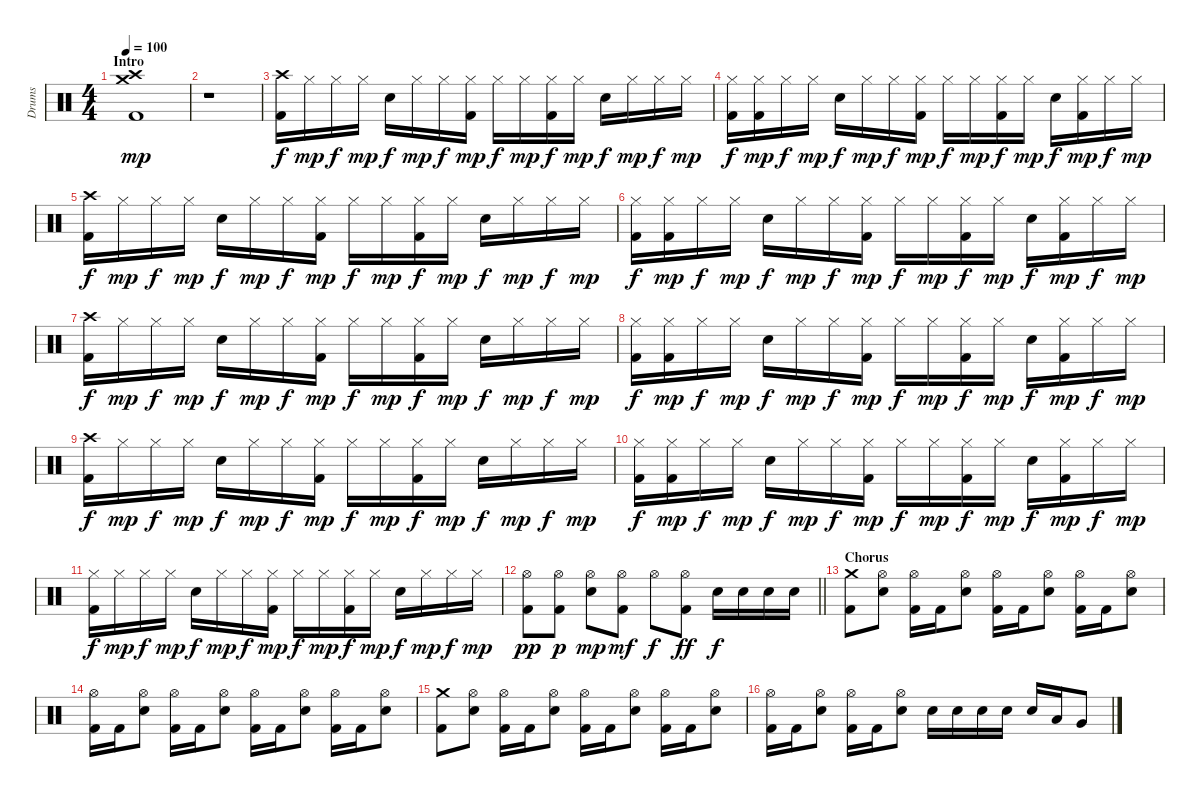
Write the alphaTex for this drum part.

\track ("Drums" "Drums") {instrument percussion}
\staff {score}
\articulation defaults
\ts (4 4)
\section ("" "Intro")
\tempo 100
\clef neutral
\ks c
("Crash high (hit)" "Crash medium (hit)" "Kick (hit) 2").1{dy mp} |
r.1 |
("Crash high (hit)" "Kick (hit) 2").16{dy f} "Hi-Hat (closed)".16{dy mp} "Hi-Hat (closed)".16{dy f} "Hi-Hat (closed)".16{dy mp} "Snare (hit) 2".16{dy f} "Hi-Hat (closed)".16{dy mp} "Hi-Hat (closed)".16{dy f} ("Hi-Hat (closed)" "Kick (hit) 2").16{dy mp} "Hi-Hat (closed)".16{dy f} "Hi-Hat (closed)".16{dy mp} ("Hi-Hat (closed)" "Kick (hit) 2").16{dy f} "Hi-Hat (closed)".16{dy mp} "Snare (hit) 2".16{dy f} "Hi-Hat (closed)".16{dy mp} "Hi-Hat (closed)".16{dy f} "Hi-Hat (closed)".16{dy mp} |
("Hi-Hat (closed)" "Kick (hit) 2").16{dy f} ("Hi-Hat (closed)" "Kick (hit) 2").16{dy mp} "Hi-Hat (closed)".16{dy f} "Hi-Hat (closed)".16{dy mp} "Snare (hit) 2".16{dy f} "Hi-Hat (closed)".16{dy mp} "Hi-Hat (closed)".16{dy f} ("Hi-Hat (closed)" "Kick (hit) 2").16{dy mp} "Hi-Hat (closed)".16{dy f} "Hi-Hat (closed)".16{dy mp} ("Hi-Hat (closed)" "Kick (hit) 2").16{dy f} "Hi-Hat (closed)".16{dy mp} "Snare (hit) 2".16{dy f} ("Hi-Hat (closed)" "Kick (hit) 2").16{dy mp} "Hi-Hat (closed)".16{dy f} "Hi-Hat (closed)".16{dy mp} |
("Crash high (hit)" "Kick (hit) 2").16{dy f} "Hi-Hat (closed)".16{dy mp} "Hi-Hat (closed)".16{dy f} "Hi-Hat (closed)".16{dy mp} "Snare (hit) 2".16{dy f} "Hi-Hat (closed)".16{dy mp} "Hi-Hat (closed)".16{dy f} ("Hi-Hat (closed)" "Kick (hit) 2").16{dy mp} "Hi-Hat (closed)".16{dy f} "Hi-Hat (closed)".16{dy mp} ("Hi-Hat (closed)" "Kick (hit) 2").16{dy f} "Hi-Hat (closed)".16{dy mp} "Snare (hit) 2".16{dy f} "Hi-Hat (closed)".16{dy mp} "Hi-Hat (closed)".16{dy f} "Hi-Hat (closed)".16{dy mp} |
("Hi-Hat (closed)" "Kick (hit) 2").16{dy f} ("Hi-Hat (closed)" "Kick (hit) 2").16{dy mp} "Hi-Hat (closed)".16{dy f} "Hi-Hat (closed)".16{dy mp} "Snare (hit) 2".16{dy f} "Hi-Hat (closed)".16{dy mp} "Hi-Hat (closed)".16{dy f} ("Hi-Hat (closed)" "Kick (hit) 2").16{dy mp} "Hi-Hat (closed)".16{dy f} "Hi-Hat (closed)".16{dy mp} ("Hi-Hat (closed)" "Kick (hit) 2").16{dy f} "Hi-Hat (closed)".16{dy mp} "Snare (hit) 2".16{dy f} ("Hi-Hat (closed)" "Kick (hit) 2").16{dy mp} "Hi-Hat (closed)".16{dy f} "Hi-Hat (closed)".16{dy mp} |
("Crash high (hit)" "Kick (hit) 2").16{dy f} "Hi-Hat (closed)".16{dy mp} "Hi-Hat (closed)".16{dy f} "Hi-Hat (closed)".16{dy mp} "Snare (hit) 2".16{dy f} "Hi-Hat (closed)".16{dy mp} "Hi-Hat (closed)".16{dy f} ("Hi-Hat (closed)" "Kick (hit) 2").16{dy mp} "Hi-Hat (closed)".16{dy f} "Hi-Hat (closed)".16{dy mp} ("Hi-Hat (closed)" "Kick (hit) 2").16{dy f} "Hi-Hat (closed)".16{dy mp} "Snare (hit) 2".16{dy f} "Hi-Hat (closed)".16{dy mp} "Hi-Hat (closed)".16{dy f} "Hi-Hat (closed)".16{dy mp} |
("Hi-Hat (closed)" "Kick (hit) 2").16{dy f} ("Hi-Hat (closed)" "Kick (hit) 2").16{dy mp} "Hi-Hat (closed)".16{dy f} "Hi-Hat (closed)".16{dy mp} "Snare (hit) 2".16{dy f} "Hi-Hat (closed)".16{dy mp} "Hi-Hat (closed)".16{dy f} ("Hi-Hat (closed)" "Kick (hit) 2").16{dy mp} "Hi-Hat (closed)".16{dy f} "Hi-Hat (closed)".16{dy mp} ("Hi-Hat (closed)" "Kick (hit) 2").16{dy f} "Hi-Hat (closed)".16{dy mp} "Snare (hit) 2".16{dy f} ("Hi-Hat (closed)" "Kick (hit) 2").16{dy mp} "Hi-Hat (closed)".16{dy f} "Hi-Hat (closed)".16{dy mp} |
("Crash high (hit)" "Kick (hit) 2").16{dy f} "Hi-Hat (closed)".16{dy mp} "Hi-Hat (closed)".16{dy f} "Hi-Hat (closed)".16{dy mp} "Snare (hit) 2".16{dy f} "Hi-Hat (closed)".16{dy mp} "Hi-Hat (closed)".16{dy f} ("Hi-Hat (closed)" "Kick (hit) 2").16{dy mp} "Hi-Hat (closed)".16{dy f} "Hi-Hat (closed)".16{dy mp} ("Hi-Hat (closed)" "Kick (hit) 2").16{dy f} "Hi-Hat (closed)".16{dy mp} "Snare (hit) 2".16{dy f} "Hi-Hat (closed)".16{dy mp} "Hi-Hat (closed)".16{dy f} "Hi-Hat (closed)".16{dy mp} |
("Hi-Hat (closed)" "Kick (hit) 2").16{dy f} ("Hi-Hat (closed)" "Kick (hit) 2").16{dy mp} "Hi-Hat (closed)".16{dy f} "Hi-Hat (closed)".16{dy mp} "Snare (hit) 2".16{dy f} "Hi-Hat (closed)".16{dy mp} "Hi-Hat (closed)".16{dy f} ("Hi-Hat (closed)" "Kick (hit) 2").16{dy mp} "Hi-Hat (closed)".16{dy f} "Hi-Hat (closed)".16{dy mp} ("Hi-Hat (closed)" "Kick (hit) 2").16{dy f} "Hi-Hat (closed)".16{dy mp} "Snare (hit) 2".16{dy f} ("Hi-Hat (closed)" "Kick (hit) 2").16{dy mp} "Hi-Hat (closed)".16{dy f} "Hi-Hat (closed)".16{dy mp} |
("Hi-Hat (closed)" "Kick (hit) 2").16{dy f} "Hi-Hat (closed)".16{dy mp} "Hi-Hat (closed)".16{dy f} "Hi-Hat (closed)".16{dy mp} "Snare (hit) 2".16{dy f} "Hi-Hat (closed)".16{dy mp} "Hi-Hat (closed)".16{dy f} ("Hi-Hat (closed)" "Kick (hit) 2").16{dy mp} "Hi-Hat (closed)".16{dy f} "Hi-Hat (closed)".16{dy mp} ("Hi-Hat (closed)" "Kick (hit) 2").16{dy f} "Hi-Hat (closed)".16{dy mp} "Snare (hit) 2".16{dy f} "Hi-Hat (closed)".16{dy mp} "Hi-Hat (closed)".16{dy f} "Hi-Hat (closed)".16{dy mp} |
\barLineRight lightlight
("Hi-Hat (open)" "Kick (hit) 2").8{dy pp} ("Hi-Hat (open)" "Kick (hit) 2").8{dy p} ("Hi-Hat (open)" "Snare (hit) 2").8{dy mp} ("Hi-Hat (open)" "Kick (hit) 2").8{dy mf} "Hi-Hat (open)".8{dy f} ("Hi-Hat (open)" "Kick (hit) 2").8{dy ff} "Snare (hit) 2".16{dy f} "Snare (hit) 2".16 "Snare (hit) 2".16 "Snare (hit) 2".16 |
\section ("" "Chorus")
("Crash medium (hit)" "Kick (hit) 2").8 ("Hi-Hat (open)" "Snare (hit) 2").8 ("Hi-Hat (open)" "Kick (hit) 2").16 "Kick (hit) 2".16 ("Hi-Hat (open)" "Snare (hit) 2").8 ("Hi-Hat (open)" "Kick (hit) 2").16 "Kick (hit) 2".16 ("Hi-Hat (open)" "Snare (hit) 2").8 ("Hi-Hat (open)" "Kick (hit) 2").16 "Kick (hit) 2".16 ("Hi-Hat (open)" "Snare (hit) 2").8 |
("Hi-Hat (open)" "Kick (hit) 2").16 "Kick (hit) 2".16 ("Hi-Hat (open)" "Snare (hit) 2").8 ("Hi-Hat (open)" "Kick (hit) 2").16 "Kick (hit) 2".16 ("Hi-Hat (open)" "Snare (hit) 2").8 ("Hi-Hat (open)" "Kick (hit) 2").16 "Kick (hit) 2".16 ("Hi-Hat (open)" "Snare (hit) 2").8 ("Hi-Hat (open)" "Kick (hit) 2").16 "Kick (hit) 2".16 ("Hi-Hat (open)" "Snare (hit) 2").8 |
("Crash medium (hit)" "Kick (hit) 2").8 ("Hi-Hat (open)" "Snare (hit) 2").8 ("Hi-Hat (open)" "Kick (hit) 2").16 "Kick (hit) 2".16 ("Hi-Hat (open)" "Snare (hit) 2").8 ("Hi-Hat (open)" "Kick (hit) 2").16 "Kick (hit) 2".16 ("Hi-Hat (open)" "Snare (hit) 2").8 ("Hi-Hat (open)" "Kick (hit) 2").16 "Kick (hit) 2".16 ("Hi-Hat (open)" "Snare (hit) 2").8 |
("Hi-Hat (open)" "Kick (hit) 2").16 "Kick (hit) 2".16 ("Hi-Hat (open)" "Snare (hit) 2").8 ("Hi-Hat (open)" "Kick (hit) 2").16 "Kick (hit) 2".16 ("Hi-Hat (open)" "Snare (hit) 2").8 "Snare (hit) 2".16 "Snare (hit) 2".16 "Snare (hit) 2".16 "Snare (hit) 2".16 "Snare (hit) 2".16 "Low Tom (hit)".16 "Very Low Tom (hit)".8
